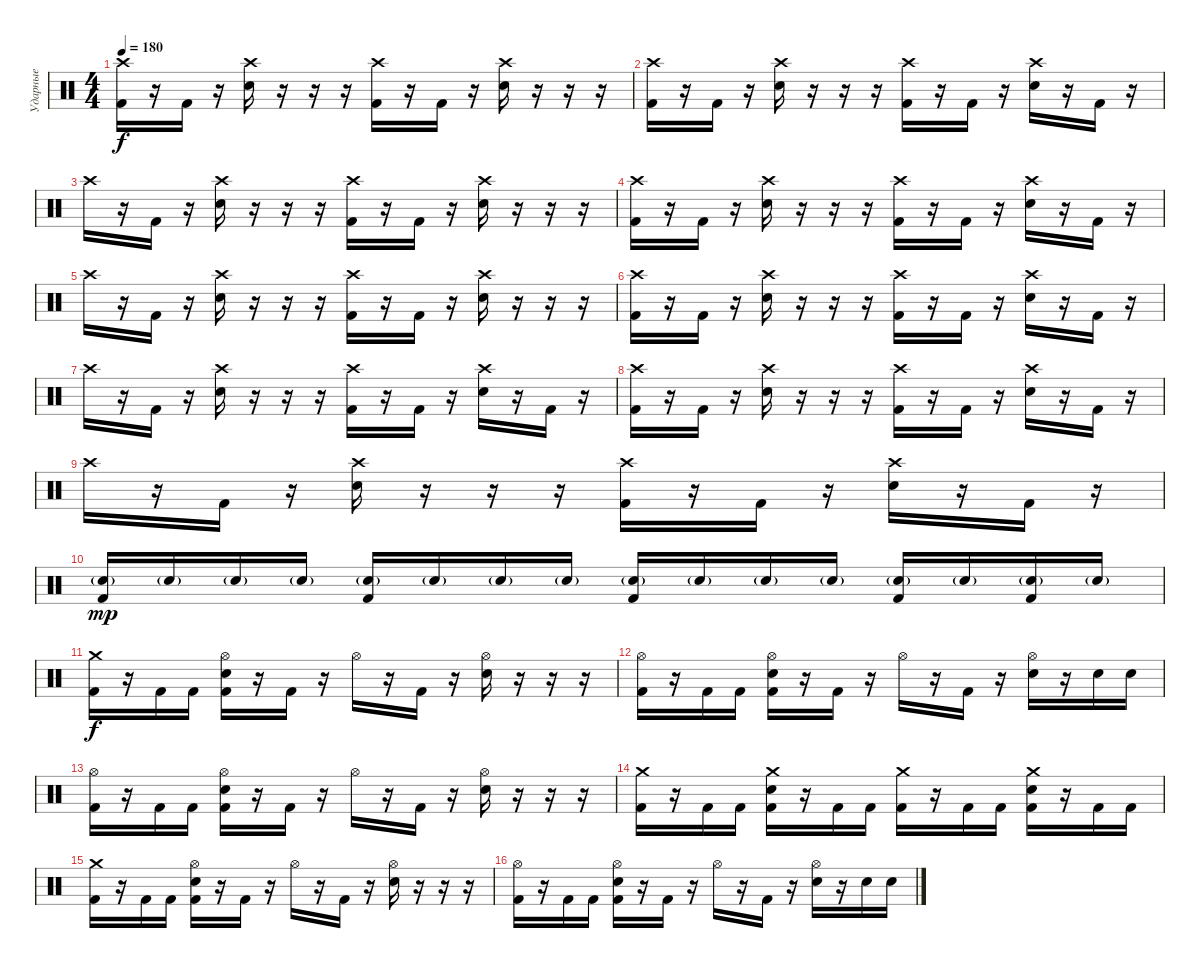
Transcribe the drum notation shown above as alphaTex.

\track ("Ударные" "Ударные") {instrument percussion}
\staff {score}
\articulation defaults
\ts (4 4)
\tempo 180
\clef neutral
\ks c
("Crash high (hit)" "Kick (hit) 2").16{dy f} r.16 "Kick (hit) 2".16 r.16 ("Crash high (hit)" "Electric Snare (hit)").16 r.16 r.16 r.16 ("Crash high (hit)" "Kick (hit) 2").16 r.16 "Kick (hit) 2".16 r.16 ("Crash high (hit)" "Electric Snare (hit)").16 r.16 r.16 r.16 |
("Crash high (hit)" "Kick (hit) 2").16 r.16 "Kick (hit) 2".16 r.16 ("Crash high (hit)" "Electric Snare (hit)").16 r.16 r.16 r.16 ("Crash high (hit)" "Kick (hit) 2").16 r.16 "Kick (hit) 2".16 r.16 ("Crash high (hit)" "Electric Snare (hit)").16 r.16 "Kick (hit) 2".16 r.16 |
"Crash high (hit)".16 r.16 "Kick (hit) 2".16 r.16 ("Crash high (hit)" "Electric Snare (hit)").16 r.16 r.16 r.16 ("Crash high (hit)" "Kick (hit) 2").16 r.16 "Kick (hit) 2".16 r.16 ("Crash high (hit)" "Electric Snare (hit)").16 r.16 r.16 r.16 |
("Crash high (hit)" "Kick (hit) 2").16 r.16 "Kick (hit) 2".16 r.16 ("Crash high (hit)" "Electric Snare (hit)").16 r.16 r.16 r.16 ("Crash high (hit)" "Kick (hit) 2").16 r.16 "Kick (hit) 2".16 r.16 ("Crash high (hit)" "Electric Snare (hit)").16 r.16 "Kick (hit) 2".16 r.16 |
"Crash high (hit)".16 r.16 "Kick (hit) 2".16 r.16 ("Crash high (hit)" "Electric Snare (hit)").16 r.16 r.16 r.16 ("Crash high (hit)" "Kick (hit) 2").16 r.16 "Kick (hit) 2".16 r.16 ("Crash high (hit)" "Electric Snare (hit)").16 r.16 r.16 r.16 |
("Crash high (hit)" "Kick (hit) 2").16 r.16 "Kick (hit) 2".16 r.16 ("Crash high (hit)" "Electric Snare (hit)").16 r.16 r.16 r.16 ("Crash high (hit)" "Kick (hit) 2").16 r.16 "Kick (hit) 2".16 r.16 ("Crash high (hit)" "Electric Snare (hit)").16 r.16 "Kick (hit) 2".16 r.16 |
"Crash high (hit)".16 r.16 "Kick (hit) 2".16 r.16 ("Crash high (hit)" "Electric Snare (hit)").16 r.16 r.16 r.16 ("Crash high (hit)" "Kick (hit) 2").16 r.16 "Kick (hit) 2".16 r.16 ("Crash high (hit)" "Electric Snare (hit)").16 r.16 "Kick (hit) 2".16 r.16 |
("Crash high (hit)" "Kick (hit) 2").16 r.16 "Kick (hit) 2".16 r.16 ("Crash high (hit)" "Electric Snare (hit)").16 r.16 r.16 r.16 ("Crash high (hit)" "Kick (hit) 2").16 r.16 "Kick (hit) 2".16 r.16 ("Crash high (hit)" "Electric Snare (hit)").16 r.16 "Kick (hit) 2".16 r.16 |
"Crash high (hit)".16 r.16 "Kick (hit) 2".16 r.16 ("Crash high (hit)" "Electric Snare (hit)").16 r.16 r.16 r.16 ("Crash high (hit)" "Kick (hit) 2").16 r.16 "Kick (hit) 2".16 r.16 ("Crash high (hit)" "Electric Snare (hit)").16 r.16 "Kick (hit) 2".16 r.16 |
("Electric Snare (hit)"{g} "Kick (hit) 2").16{dy mp} "Electric Snare (hit)"{g}.16 "Electric Snare (hit)"{g}.16 "Electric Snare (hit)"{g}.16 ("Electric Snare (hit)"{g} "Kick (hit) 2").16 "Electric Snare (hit)"{g}.16 "Electric Snare (hit)"{g}.16 "Electric Snare (hit)"{g}.16 ("Electric Snare (hit)"{g} "Kick (hit) 2").16 "Electric Snare (hit)"{g}.16 "Electric Snare (hit)"{g}.16 "Electric Snare (hit)"{g}.16 ("Electric Snare (hit)"{g} "Kick (hit) 2").16 "Electric Snare (hit)"{g}.16 ("Electric Snare (hit)"{g} "Kick (hit) 2").16 "Electric Snare (hit)"{g}.16 |
("Crash medium (hit)" "Kick (hit) 2").16{dy f} r.16 "Kick (hit) 2".16 "Kick (hit) 2".16 ("Hi-Hat (open)" "Electric Snare (hit)" "Kick (hit) 2").16 r.16 "Kick (hit) 2".16 r.16 "Hi-Hat (open)".16 r.16 "Kick (hit) 2".16 r.16 ("Hi-Hat (open)" "Electric Snare (hit)").16 r.16 r.16 r.16 |
("Hi-Hat (open)" "Kick (hit) 2").16 r.16 "Kick (hit) 2".16 "Kick (hit) 2".16 ("Hi-Hat (open)" "Electric Snare (hit)" "Kick (hit) 2").16 r.16 "Kick (hit) 2".16 r.16 "Hi-Hat (open)".16 r.16 "Kick (hit) 2".16 r.16 ("Hi-Hat (open)" "Electric Snare (hit)").16 r.16 "Electric Snare (hit)".16 "Electric Snare (hit)".16 |
("Hi-Hat (open)" "Kick (hit) 2").16 r.16 "Kick (hit) 2".16 "Kick (hit) 2".16 ("Hi-Hat (open)" "Electric Snare (hit)" "Kick (hit) 2").16 r.16 "Kick (hit) 2".16 r.16 "Hi-Hat (open)".16 r.16 "Kick (hit) 2".16 r.16 ("Hi-Hat (open)" "Electric Snare (hit)").16 r.16 r.16 r.16 |
("Crash medium (hit)" "Kick (hit) 2").16 r.16 "Kick (hit) 2".16 "Kick (hit) 2".16 ("Crash medium (hit)" "Electric Snare (hit)" "Kick (hit) 2").16 r.16 "Kick (hit) 2".16 "Kick (hit) 2".16 ("Crash medium (hit)" "Kick (hit) 2").16 r.16 "Kick (hit) 2".16 "Kick (hit) 2".16 ("Crash medium (hit)" "Electric Snare (hit)" "Kick (hit) 2").16 r.16 "Kick (hit) 2".16 "Kick (hit) 2".16 |
("Crash medium (hit)" "Kick (hit) 2").16 r.16 "Kick (hit) 2".16 "Kick (hit) 2".16 ("Hi-Hat (open)" "Electric Snare (hit)" "Kick (hit) 2").16 r.16 "Kick (hit) 2".16 r.16 "Hi-Hat (open)".16 r.16 "Kick (hit) 2".16 r.16 ("Hi-Hat (open)" "Electric Snare (hit)").16 r.16 r.16 r.16 |
("Hi-Hat (open)" "Kick (hit) 2").16 r.16 "Kick (hit) 2".16 "Kick (hit) 2".16 ("Hi-Hat (open)" "Electric Snare (hit)" "Kick (hit) 2").16 r.16 "Kick (hit) 2".16 r.16 "Hi-Hat (open)".16 r.16 "Kick (hit) 2".16 r.16 ("Hi-Hat (open)" "Electric Snare (hit)").16 r.16 "Electric Snare (hit)".16 "Electric Snare (hit)".16
